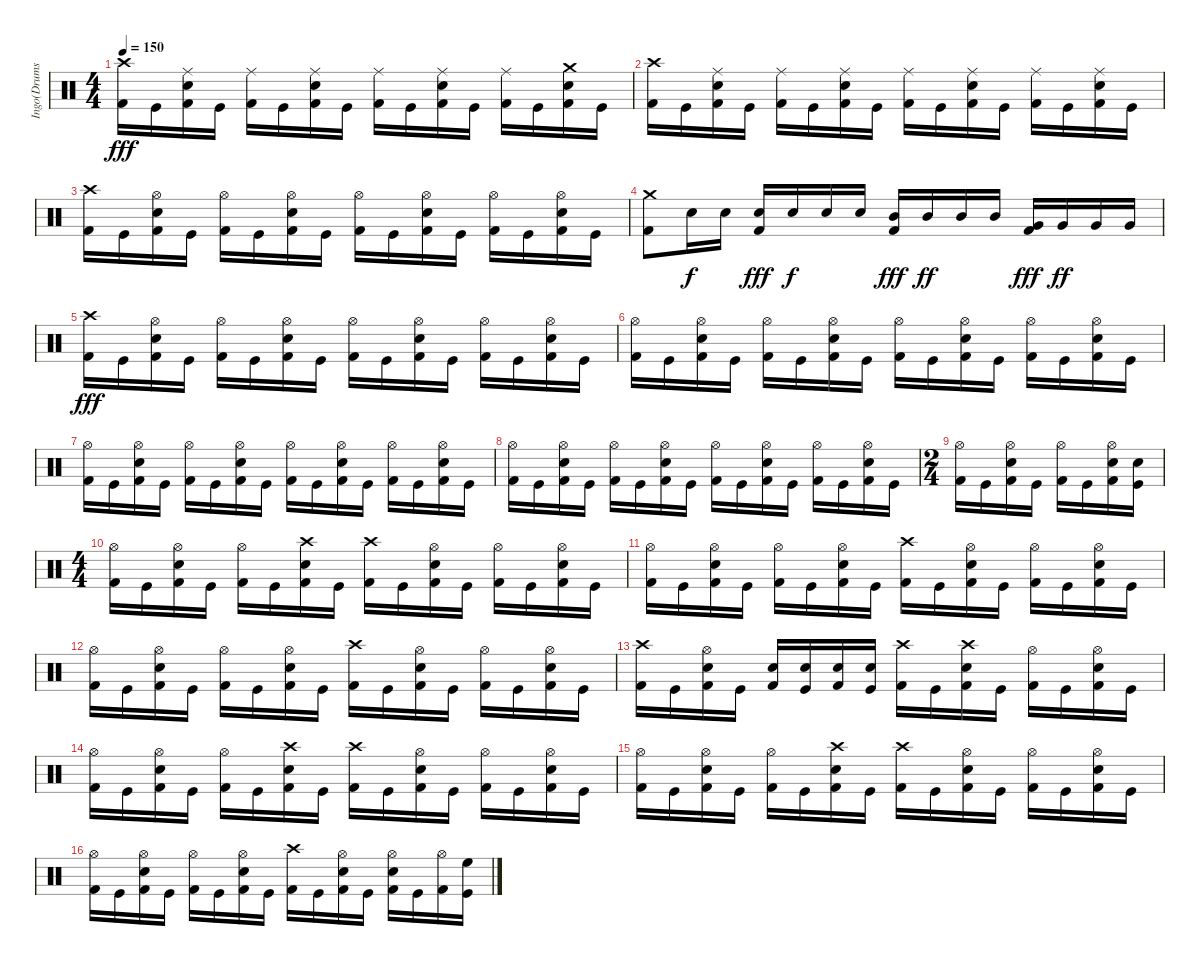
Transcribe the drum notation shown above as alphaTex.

\track ("Ingo(Drums)" "Ingo(Drums") {instrument percussion}
\staff {score}
\articulation defaults
\ts (4 4)
\tempo 150
\clef neutral
\ks c
("Crash high (hit)" "Kick (hit) 2").16{dy fff} "Kick (hit)".16 ("Ride (middle)" "Electric Snare (hit)" "Kick (hit) 2").16 "Kick (hit)".16 ("Ride (middle)" "Kick (hit) 2").16 "Kick (hit)".16 ("Ride (middle)" "Electric Snare (hit)" "Kick (hit) 2").16 "Kick (hit)".16 ("Ride (middle)" "Kick (hit) 2").16 "Kick (hit)".16 ("Ride (middle)" "Electric Snare (hit)" "Kick (hit) 2").16 "Kick (hit)".16 ("Ride (middle)" "Kick (hit) 2").16 "Kick (hit)".16 ("Crash medium (hit)" "Electric Snare (hit)" "Kick (hit) 2").16 "Kick (hit)".16 |
("Crash high (hit)" "Kick (hit) 2").16 "Kick (hit)".16 ("Ride (middle)" "Electric Snare (hit)" "Kick (hit) 2").16 "Kick (hit)".16 ("Ride (middle)" "Kick (hit) 2").16 "Kick (hit)".16 ("Ride (middle)" "Electric Snare (hit)" "Kick (hit) 2").16 "Kick (hit)".16 ("Ride (middle)" "Kick (hit) 2").16 "Kick (hit)".16 ("Ride (middle)" "Electric Snare (hit)" "Kick (hit) 2").16 "Kick (hit)".16 ("Ride (middle)" "Kick (hit) 2").16 "Kick (hit)".16 ("Ride (middle)" "Electric Snare (hit)" "Kick (hit) 2").16 "Kick (hit)".16 |
("Crash high (hit)" "Kick (hit) 2").16 "Kick (hit)".16 ("Hi-Hat (open)" "Electric Snare (hit)" "Kick (hit) 2").16 "Kick (hit)".16 ("Hi-Hat (open)" "Kick (hit) 2").16 "Kick (hit)".16 ("Hi-Hat (open)" "Electric Snare (hit)" "Kick (hit) 2").16 "Kick (hit)".16 ("Hi-Hat (open)" "Kick (hit) 2").16 "Kick (hit)".16 ("Hi-Hat (open)" "Electric Snare (hit)" "Kick (hit) 2").16 "Kick (hit)".16 ("Hi-Hat (open)" "Kick (hit) 2").16 "Kick (hit)".16 ("Hi-Hat (open)" "Electric Snare (hit)" "Kick (hit) 2").16 "Kick (hit)".16 |
("Crash medium (hit)" "Kick (hit) 2").8 "Electric Snare (hit)".16{dy f} "Electric Snare (hit)".16 ("Electric Snare (hit)" "Kick (hit) 2").16{dy fff} "Electric Snare (hit)".16{dy f} "Electric Snare (hit)".16 "Electric Snare (hit)".16 ("Mid Tom (hit)" "Kick (hit) 2").16{dy fff} "Mid Tom (hit)".16{dy ff} "Mid Tom (hit)".16 "Mid Tom (hit)".16 ("Very Low Tom (hit)" "Kick (hit) 2").16{dy fff} "Very Low Tom (hit)".16{dy ff} "Very Low Tom (hit)".16 "Very Low Tom (hit)".16 |
("Crash high (hit)" "Kick (hit) 2").16{dy fff} "Kick (hit)".16 ("Hi-Hat (open)" "Electric Snare (hit)" "Kick (hit) 2").16 "Kick (hit)".16 ("Hi-Hat (open)" "Kick (hit) 2").16 "Kick (hit)".16 ("Hi-Hat (open)" "Electric Snare (hit)" "Kick (hit) 2").16 "Kick (hit)".16 ("Hi-Hat (open)" "Kick (hit) 2").16 "Kick (hit)".16 ("Hi-Hat (open)" "Electric Snare (hit)" "Kick (hit) 2").16 "Kick (hit)".16 ("Hi-Hat (open)" "Kick (hit) 2").16 "Kick (hit)".16 ("Hi-Hat (open)" "Electric Snare (hit)" "Kick (hit) 2").16 "Kick (hit)".16 |
("Hi-Hat (open)" "Kick (hit) 2").16 "Kick (hit)".16 ("Hi-Hat (open)" "Electric Snare (hit)" "Kick (hit) 2").16 "Kick (hit)".16 ("Hi-Hat (open)" "Kick (hit) 2").16 "Kick (hit)".16 ("Hi-Hat (open)" "Electric Snare (hit)" "Kick (hit) 2").16 "Kick (hit)".16 ("Hi-Hat (open)" "Kick (hit) 2").16 "Kick (hit)".16 ("Hi-Hat (open)" "Electric Snare (hit)" "Kick (hit) 2").16 "Kick (hit)".16 ("Hi-Hat (open)" "Kick (hit) 2").16 "Kick (hit)".16 ("Hi-Hat (open)" "Electric Snare (hit)" "Kick (hit) 2").16 "Kick (hit)".16 |
("Hi-Hat (open)" "Kick (hit) 2").16 "Kick (hit)".16 ("Hi-Hat (open)" "Electric Snare (hit)" "Kick (hit) 2").16 "Kick (hit)".16 ("Hi-Hat (open)" "Kick (hit) 2").16 "Kick (hit)".16 ("Hi-Hat (open)" "Electric Snare (hit)" "Kick (hit) 2").16 "Kick (hit)".16 ("Hi-Hat (open)" "Kick (hit) 2").16 "Kick (hit)".16 ("Hi-Hat (open)" "Electric Snare (hit)" "Kick (hit) 2").16 "Kick (hit)".16 ("Hi-Hat (open)" "Kick (hit) 2").16 "Kick (hit)".16 ("Hi-Hat (open)" "Electric Snare (hit)" "Kick (hit) 2").16 "Kick (hit)".16 |
("Hi-Hat (open)" "Kick (hit) 2").16 "Kick (hit)".16 ("Hi-Hat (open)" "Electric Snare (hit)" "Kick (hit) 2").16 "Kick (hit)".16 ("Hi-Hat (open)" "Kick (hit) 2").16 "Kick (hit)".16 ("Hi-Hat (open)" "Electric Snare (hit)" "Kick (hit) 2").16 "Kick (hit)".16 ("Hi-Hat (open)" "Kick (hit) 2").16 "Kick (hit)".16 ("Hi-Hat (open)" "Electric Snare (hit)" "Kick (hit) 2").16 "Kick (hit)".16 ("Hi-Hat (open)" "Kick (hit) 2").16 "Kick (hit)".16 ("Hi-Hat (open)" "Electric Snare (hit)" "Kick (hit) 2").16 "Kick (hit)".16 |
\ts (2 4)
("Hi-Hat (open)" "Kick (hit) 2").16 "Kick (hit)".16 ("Hi-Hat (open)" "Electric Snare (hit)" "Kick (hit) 2").16 "Kick (hit)".16 ("Hi-Hat (open)" "Kick (hit) 2").16 "Kick (hit)".16 ("Hi-Hat (open)" "Electric Snare (hit)" "Kick (hit) 2").16 ("Electric Snare (hit)" "Kick (hit)").16 |
\ts (4 4)
("Hi-Hat (open)" "Kick (hit) 2").16 "Kick (hit)".16 ("Hi-Hat (open)" "Electric Snare (hit)" "Kick (hit) 2").16 "Kick (hit)".16 ("Hi-Hat (open)" "Kick (hit) 2").16 "Kick (hit)".16 ("Crash high (hit)" "Electric Snare (hit)" "Kick (hit) 2").16 "Kick (hit)".16 ("Crash high (hit)" "Kick (hit) 2").16 "Kick (hit)".16 ("Hi-Hat (open)" "Electric Snare (hit)" "Kick (hit) 2").16 "Kick (hit)".16 ("Hi-Hat (open)" "Kick (hit) 2").16 "Kick (hit)".16 ("Hi-Hat (open)" "Electric Snare (hit)" "Kick (hit) 2").16 "Kick (hit)".16 |
("Hi-Hat (open)" "Kick (hit) 2").16 "Kick (hit)".16 ("Hi-Hat (open)" "Electric Snare (hit)" "Kick (hit) 2").16 "Kick (hit)".16 ("Hi-Hat (open)" "Kick (hit) 2").16 "Kick (hit)".16 ("Hi-Hat (open)" "Electric Snare (hit)" "Kick (hit) 2").16 "Kick (hit)".16 ("Crash high (hit)" "Kick (hit) 2").16 "Kick (hit)".16 ("Hi-Hat (open)" "Electric Snare (hit)" "Kick (hit) 2").16 "Kick (hit)".16 ("Hi-Hat (open)" "Kick (hit) 2").16 "Kick (hit)".16 ("Hi-Hat (open)" "Electric Snare (hit)" "Kick (hit) 2").16 "Kick (hit)".16 |
("Hi-Hat (open)" "Kick (hit) 2").16 "Kick (hit)".16 ("Hi-Hat (open)" "Electric Snare (hit)" "Kick (hit) 2").16 "Kick (hit)".16 ("Hi-Hat (open)" "Kick (hit) 2").16 "Kick (hit)".16 ("Hi-Hat (open)" "Electric Snare (hit)" "Kick (hit) 2").16 "Kick (hit)".16 ("Crash high (hit)" "Kick (hit) 2").16 "Kick (hit)".16 ("Hi-Hat (open)" "Electric Snare (hit)" "Kick (hit) 2").16 "Kick (hit)".16 ("Hi-Hat (open)" "Kick (hit) 2").16 "Kick (hit)".16 ("Hi-Hat (open)" "Electric Snare (hit)" "Kick (hit) 2").16 "Kick (hit)".16 |
("Crash high (hit)" "Kick (hit) 2").16 "Kick (hit)".16 ("Hi-Hat (open)" "Electric Snare (hit)" "Kick (hit) 2").16 "Kick (hit)".16 ("Electric Snare (hit)" "Kick (hit) 2").16 ("Electric Snare (hit)" "Kick (hit)").16 ("Electric Snare (hit)" "Kick (hit) 2").16 ("Electric Snare (hit)" "Kick (hit)").16 ("Crash high (hit)" "Kick (hit) 2").16 "Kick (hit)".16 ("Crash high (hit)" "Electric Snare (hit)" "Kick (hit) 2").16 "Kick (hit)".16 ("Hi-Hat (open)" "Kick (hit) 2").16 "Kick (hit)".16 ("Hi-Hat (open)" "Electric Snare (hit)" "Kick (hit) 2").16 "Kick (hit)".16 |
("Hi-Hat (open)" "Kick (hit) 2").16 "Kick (hit)".16 ("Hi-Hat (open)" "Electric Snare (hit)" "Kick (hit) 2").16 "Kick (hit)".16 ("Hi-Hat (open)" "Kick (hit) 2").16 "Kick (hit)".16 ("Crash high (hit)" "Electric Snare (hit)" "Kick (hit) 2").16 "Kick (hit)".16 ("Crash high (hit)" "Kick (hit) 2").16 "Kick (hit)".16 ("Hi-Hat (open)" "Electric Snare (hit)" "Kick (hit) 2").16 "Kick (hit)".16 ("Hi-Hat (open)" "Kick (hit) 2").16 "Kick (hit)".16 ("Hi-Hat (open)" "Electric Snare (hit)" "Kick (hit) 2").16 "Kick (hit)".16 |
("Hi-Hat (open)" "Kick (hit) 2").16 "Kick (hit)".16 ("Hi-Hat (open)" "Electric Snare (hit)" "Kick (hit) 2").16 "Kick (hit)".16 ("Hi-Hat (open)" "Kick (hit) 2").16 "Kick (hit)".16 ("Crash high (hit)" "Electric Snare (hit)" "Kick (hit) 2").16 "Kick (hit)".16 ("Crash high (hit)" "Kick (hit) 2").16 "Kick (hit)".16 ("Hi-Hat (open)" "Electric Snare (hit)" "Kick (hit) 2").16 "Kick (hit)".16 ("Hi-Hat (open)" "Kick (hit) 2").16 "Kick (hit)".16 ("Hi-Hat (open)" "Electric Snare (hit)" "Kick (hit) 2").16 "Kick (hit)".16 |
("Hi-Hat (open)" "Kick (hit) 2").16 "Kick (hit)".16 ("Hi-Hat (open)" "Electric Snare (hit)" "Kick (hit) 2").16 "Kick (hit)".16 ("Hi-Hat (open)" "Kick (hit) 2").16 "Kick (hit)".16 ("Hi-Hat (open)" "Electric Snare (hit)" "Kick (hit) 2").16 "Kick (hit)".16 ("Crash high (hit)" "Kick (hit) 2").16 "Kick (hit)".16 ("Hi-Hat (open)" "Electric Snare (hit)" "Kick (hit) 2").16 "Kick (hit)".16 ("Hi-Hat (open)" "Electric Snare (hit)" "Kick (hit) 2").16 "Kick (hit)".16 ("Hi-Hat (open)" "Kick (hit) 2").16 ("High Floor Tom (hit)" "Kick (hit)").16
